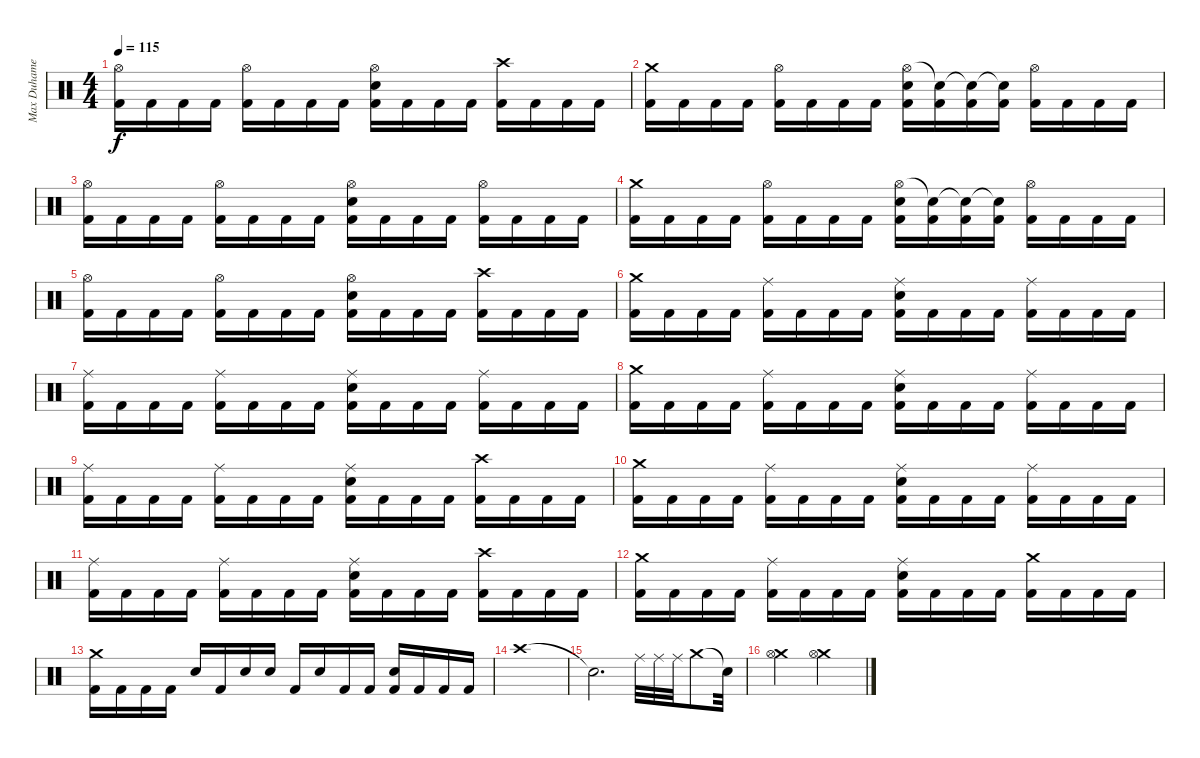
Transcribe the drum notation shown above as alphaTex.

\track ("Max Duhamel (Drums)" "Max Duhame") {instrument percussion}
\staff {score}
\articulation defaults
\ts (4 4)
\tempo 115
\clef neutral
\ks c
("Hi-Hat (open)" "Kick (hit) 2").16{dy f} "Kick (hit) 2".16 "Kick (hit) 2".16 "Kick (hit) 2".16 ("Hi-Hat (open)" "Kick (hit) 2").16 "Kick (hit) 2".16 "Kick (hit) 2".16 "Kick (hit) 2".16 ("Hi-Hat (open)" "Electric Snare (hit)" "Kick (hit) 2").16 "Kick (hit) 2".16 "Kick (hit) 2".16 "Kick (hit) 2".16 ("Crash high (hit)" "Kick (hit) 2").16 "Kick (hit) 2".16 "Kick (hit) 2".16 "Kick (hit) 2".16 |
("Crash medium (hit)" "Kick (hit) 2").16 "Kick (hit) 2".16 "Kick (hit) 2".16 "Kick (hit) 2".16 ("Hi-Hat (open)" "Kick (hit) 2").16 "Kick (hit) 2".16 "Kick (hit) 2".16 "Kick (hit) 2".16 ("Hi-Hat (open)" "Electric Snare (hit)" "Kick (hit) 2").16 ("Snare (hit)"{t} "Kick (hit) 2").16 ("Snare (hit)"{t} "Kick (hit) 2").16 ("Snare (hit)"{t} "Kick (hit) 2").16 ("Hi-Hat (open)" "Kick (hit) 2").16 "Kick (hit) 2".16 "Kick (hit) 2".16 "Kick (hit) 2".16 |
("Hi-Hat (open)" "Kick (hit) 2").16 "Kick (hit) 2".16 "Kick (hit) 2".16 "Kick (hit) 2".16 ("Hi-Hat (open)" "Kick (hit) 2").16 "Kick (hit) 2".16 "Kick (hit) 2".16 "Kick (hit) 2".16 ("Hi-Hat (open)" "Electric Snare (hit)" "Kick (hit) 2").16 "Kick (hit) 2".16 "Kick (hit) 2".16 "Kick (hit) 2".16 ("Hi-Hat (open)" "Kick (hit) 2").16 "Kick (hit) 2".16 "Kick (hit) 2".16 "Kick (hit) 2".16 |
("Crash medium (hit)" "Kick (hit) 2").16 "Kick (hit) 2".16 "Kick (hit) 2".16 "Kick (hit) 2".16 ("Hi-Hat (open)" "Kick (hit) 2").16 "Kick (hit) 2".16 "Kick (hit) 2".16 "Kick (hit) 2".16 ("Hi-Hat (open)" "Electric Snare (hit)" "Kick (hit) 2").16 ("Snare (hit)"{t} "Kick (hit) 2").16 ("Snare (hit)"{t} "Kick (hit) 2").16 ("Snare (hit)"{t} "Kick (hit) 2").16 ("Hi-Hat (open)" "Kick (hit) 2").16 "Kick (hit) 2".16 "Kick (hit) 2".16 "Kick (hit) 2".16 |
("Hi-Hat (open)" "Kick (hit) 2").16 "Kick (hit) 2".16 "Kick (hit) 2".16 "Kick (hit) 2".16 ("Hi-Hat (open)" "Kick (hit) 2").16 "Kick (hit) 2".16 "Kick (hit) 2".16 "Kick (hit) 2".16 ("Hi-Hat (open)" "Electric Snare (hit)" "Kick (hit) 2").16 "Kick (hit) 2".16 "Kick (hit) 2".16 "Kick (hit) 2".16 ("Crash high (hit)" "Kick (hit) 2").16 "Kick (hit) 2".16 "Kick (hit) 2".16 "Kick (hit) 2".16 |
("Crash medium (hit)" "Kick (hit) 2").16 "Kick (hit) 2".16 "Kick (hit) 2".16 "Kick (hit) 2".16 ("Ride (middle)" "Kick (hit) 2").16 "Kick (hit) 2".16 "Kick (hit) 2".16 "Kick (hit) 2".16 ("Ride (middle)" "Electric Snare (hit)" "Kick (hit) 2").16 "Kick (hit) 2".16 "Kick (hit) 2".16 "Kick (hit) 2".16 ("Ride (middle)" "Kick (hit) 2").16 "Kick (hit) 2".16 "Kick (hit) 2".16 "Kick (hit) 2".16 |
("Ride (middle)" "Kick (hit) 2").16 "Kick (hit) 2".16 "Kick (hit) 2".16 "Kick (hit) 2".16 ("Ride (middle)" "Kick (hit) 2").16 "Kick (hit) 2".16 "Kick (hit) 2".16 "Kick (hit) 2".16 ("Ride (middle)" "Electric Snare (hit)" "Kick (hit) 2").16 "Kick (hit) 2".16 "Kick (hit) 2".16 "Kick (hit) 2".16 ("Ride (middle)" "Kick (hit) 2").16 "Kick (hit) 2".16 "Kick (hit) 2".16 "Kick (hit) 2".16 |
("Crash medium (hit)" "Kick (hit) 2").16 "Kick (hit) 2".16 "Kick (hit) 2".16 "Kick (hit) 2".16 ("Ride (middle)" "Kick (hit) 2").16 "Kick (hit) 2".16 "Kick (hit) 2".16 "Kick (hit) 2".16 ("Ride (middle)" "Electric Snare (hit)" "Kick (hit) 2").16 "Kick (hit) 2".16 "Kick (hit) 2".16 "Kick (hit) 2".16 ("Ride (middle)" "Kick (hit) 2").16 "Kick (hit) 2".16 "Kick (hit) 2".16 "Kick (hit) 2".16 |
("Ride (middle)" "Kick (hit) 2").16 "Kick (hit) 2".16 "Kick (hit) 2".16 "Kick (hit) 2".16 ("Ride (middle)" "Kick (hit) 2").16 "Kick (hit) 2".16 "Kick (hit) 2".16 "Kick (hit) 2".16 ("Ride (middle)" "Electric Snare (hit)" "Kick (hit) 2").16 "Kick (hit) 2".16 "Kick (hit) 2".16 "Kick (hit) 2".16 ("Crash high (hit)" "Kick (hit) 2").16 "Kick (hit) 2".16 "Kick (hit) 2".16 "Kick (hit) 2".16 |
("Crash medium (hit)" "Kick (hit) 2").16 "Kick (hit) 2".16 "Kick (hit) 2".16 "Kick (hit) 2".16 ("Ride (middle)" "Kick (hit) 2").16 "Kick (hit) 2".16 "Kick (hit) 2".16 "Kick (hit) 2".16 ("Ride (middle)" "Electric Snare (hit)" "Kick (hit) 2").16 "Kick (hit) 2".16 "Kick (hit) 2".16 "Kick (hit) 2".16 ("Ride (middle)" "Kick (hit) 2").16 "Kick (hit) 2".16 "Kick (hit) 2".16 "Kick (hit) 2".16 |
("Ride (middle)" "Kick (hit) 2").16 "Kick (hit) 2".16 "Kick (hit) 2".16 "Kick (hit) 2".16 ("Ride (middle)" "Kick (hit) 2").16 "Kick (hit) 2".16 "Kick (hit) 2".16 "Kick (hit) 2".16 ("Ride (middle)" "Electric Snare (hit)" "Kick (hit) 2").16 "Kick (hit) 2".16 "Kick (hit) 2".16 "Kick (hit) 2".16 ("Crash high (hit)" "Kick (hit) 2").16 "Kick (hit) 2".16 "Kick (hit) 2".16 "Kick (hit) 2".16 |
("Crash medium (hit)" "Kick (hit) 2").16 "Kick (hit) 2".16 "Kick (hit) 2".16 "Kick (hit) 2".16 ("Ride (middle)" "Kick (hit) 2").16 "Kick (hit) 2".16 "Kick (hit) 2".16 "Kick (hit) 2".16 ("Ride (middle)" "Electric Snare (hit)" "Kick (hit) 2").16 "Kick (hit) 2".16 "Kick (hit) 2".16 "Kick (hit) 2".16 ("Crash medium (hit)" "Kick (hit) 2").16 "Kick (hit) 2".16 "Kick (hit) 2".16 "Kick (hit) 2".16 |
("Crash medium (hit)" "Kick (hit) 2").16 "Kick (hit) 2".16 "Kick (hit) 2".16 "Kick (hit) 2".16 "Snare (hit) 2".16 "Kick (hit) 2".16 "Snare (hit) 2".16 "Snare (hit) 2".16 "Kick (hit) 2".16 "Snare (hit) 2".16 "Kick (hit) 2".16 "Kick (hit) 2".16 ("Electric Snare (hit)" "Kick (hit) 2").16 "Kick (hit) 2".16 "Kick (hit) 2".16 "Kick (hit) 2".16 |
"Crash high (hit)".1 |
"Snare (hit)"{t}.2{d} "Ride (middle)".32 "Ride (middle)".32 "Ride (middle)".32 "Crash medium (hit)".8 "Snare (hit)"{t}.32 |
("Crash medium (hit)" "Hi-Hat (open)").2 ("Crash medium (hit)" "Hi-Hat (open)").2
